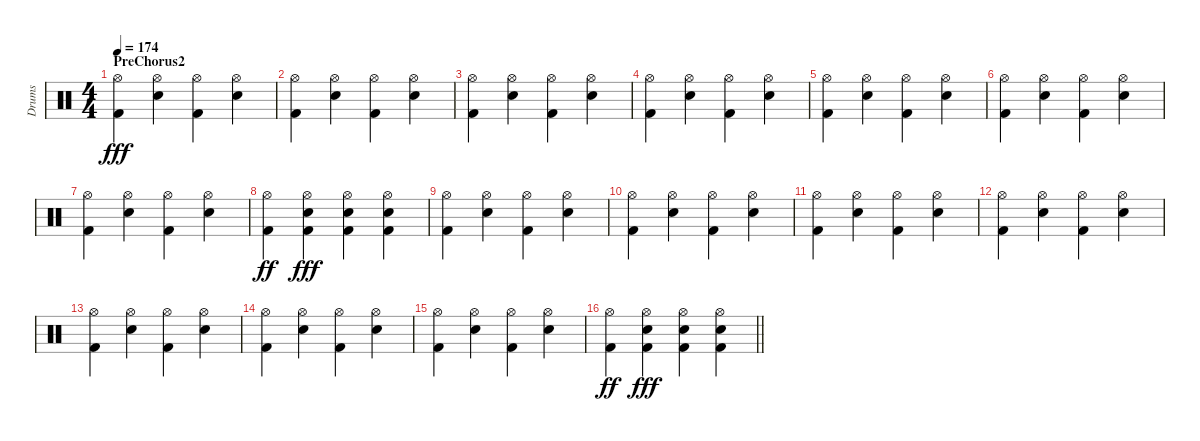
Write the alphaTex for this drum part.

\track ("Drums" "Drums") {instrument percussion}
\staff {score}
\articulation defaults
\ts (4 4)
\section ("" "PreChorus2")
\tempo 174
\clef neutral
\ks c
("Hi-Hat (open)" "Kick (hit) 2").4{dy fff} ("Hi-Hat (open)" "Electric Snare (hit)").4 ("Hi-Hat (open)" "Kick (hit) 2").4 ("Hi-Hat (open)" "Electric Snare (hit)").4 |
("Hi-Hat (open)" "Kick (hit) 2").4 ("Hi-Hat (open)" "Electric Snare (hit)").4 ("Hi-Hat (open)" "Kick (hit) 2").4 ("Hi-Hat (open)" "Electric Snare (hit)").4 |
("Hi-Hat (open)" "Kick (hit) 2").4 ("Hi-Hat (open)" "Electric Snare (hit)").4 ("Hi-Hat (open)" "Kick (hit) 2").4 ("Hi-Hat (open)" "Electric Snare (hit)").4 |
("Hi-Hat (open)" "Kick (hit) 2").4 ("Hi-Hat (open)" "Electric Snare (hit)").4 ("Hi-Hat (open)" "Kick (hit) 2").4 ("Hi-Hat (open)" "Electric Snare (hit)").4 |
("Hi-Hat (open)" "Kick (hit) 2").4 ("Hi-Hat (open)" "Electric Snare (hit)").4 ("Hi-Hat (open)" "Kick (hit) 2").4 ("Hi-Hat (open)" "Electric Snare (hit)").4 |
("Hi-Hat (open)" "Kick (hit) 2").4 ("Hi-Hat (open)" "Electric Snare (hit)").4 ("Hi-Hat (open)" "Kick (hit) 2").4 ("Hi-Hat (open)" "Electric Snare (hit)").4 |
("Hi-Hat (open)" "Kick (hit) 2").4 ("Hi-Hat (open)" "Electric Snare (hit)").4 ("Hi-Hat (open)" "Kick (hit) 2").4 ("Hi-Hat (open)" "Electric Snare (hit)").4 |
("Hi-Hat (open)" "Kick (hit) 2").4{dy ff} ("Hi-Hat (open)" "Electric Snare (hit)" "Kick (hit) 2").4{dy fff} ("Hi-Hat (open)" "Electric Snare (hit)" "Kick (hit) 2").4 ("Hi-Hat (open)" "Electric Snare (hit)" "Kick (hit) 2").4 |
("Hi-Hat (open)" "Kick (hit) 2").4 ("Hi-Hat (open)" "Electric Snare (hit)").4 ("Hi-Hat (open)" "Kick (hit) 2").4 ("Hi-Hat (open)" "Electric Snare (hit)").4 |
("Hi-Hat (open)" "Kick (hit) 2").4 ("Hi-Hat (open)" "Electric Snare (hit)").4 ("Hi-Hat (open)" "Kick (hit) 2").4 ("Hi-Hat (open)" "Electric Snare (hit)").4 |
("Hi-Hat (open)" "Kick (hit) 2").4 ("Hi-Hat (open)" "Electric Snare (hit)").4 ("Hi-Hat (open)" "Kick (hit) 2").4 ("Hi-Hat (open)" "Electric Snare (hit)").4 |
("Hi-Hat (open)" "Kick (hit) 2").4 ("Hi-Hat (open)" "Electric Snare (hit)").4 ("Hi-Hat (open)" "Kick (hit) 2").4 ("Hi-Hat (open)" "Electric Snare (hit)").4 |
("Hi-Hat (open)" "Kick (hit) 2").4 ("Hi-Hat (open)" "Electric Snare (hit)").4 ("Hi-Hat (open)" "Kick (hit) 2").4 ("Hi-Hat (open)" "Electric Snare (hit)").4 |
("Hi-Hat (open)" "Kick (hit) 2").4 ("Hi-Hat (open)" "Electric Snare (hit)").4 ("Hi-Hat (open)" "Kick (hit) 2").4 ("Hi-Hat (open)" "Electric Snare (hit)").4 |
("Hi-Hat (open)" "Kick (hit) 2").4 ("Hi-Hat (open)" "Electric Snare (hit)").4 ("Hi-Hat (open)" "Kick (hit) 2").4 ("Hi-Hat (open)" "Electric Snare (hit)").4 |
\barLineRight lightlight
("Hi-Hat (open)" "Kick (hit) 2").4{dy ff} ("Hi-Hat (open)" "Electric Snare (hit)" "Kick (hit) 2").4{dy fff} ("Hi-Hat (open)" "Electric Snare (hit)" "Kick (hit) 2").4 ("Hi-Hat (open)" "Electric Snare (hit)" "Kick (hit) 2").4
